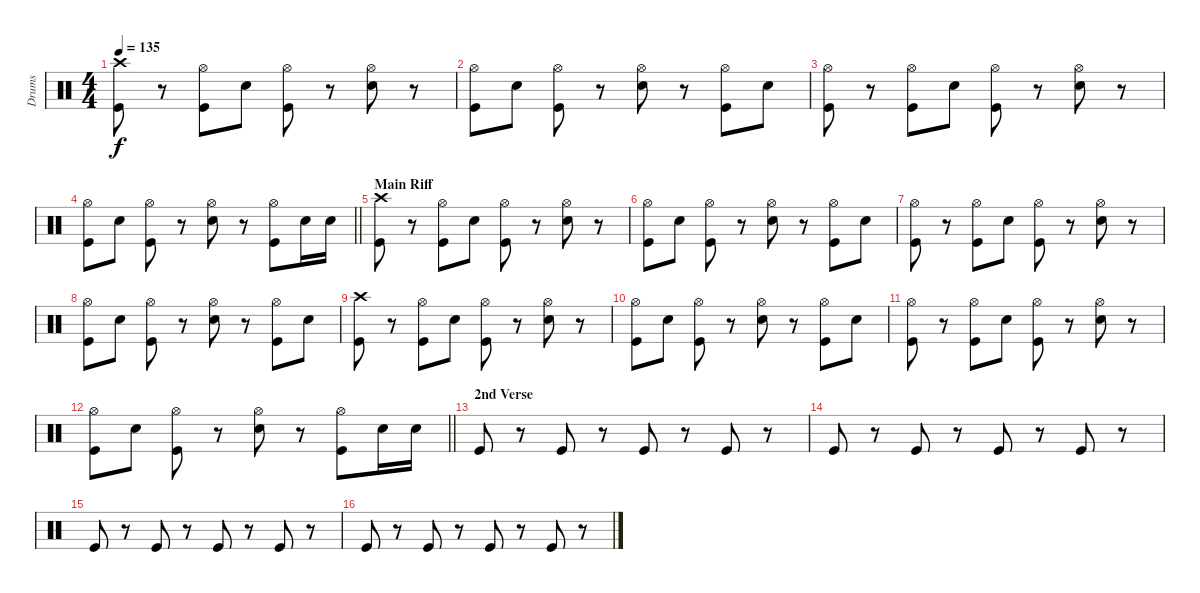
\track ("Drums" "Drums") {instrument percussion}
\staff {score}
\articulation defaults
\ts (4 4)
\tempo 135
\clef neutral
\ks c
("Crash high (hit)" "Kick (hit)").8{dy f} r.8 ("Hi-Hat (open)" "Kick (hit)").8 "Electric Snare (hit)".8 ("Hi-Hat (open)" "Kick (hit)").8 r.8 ("Hi-Hat (open)" "Electric Snare (hit)").8 r.8 |
("Hi-Hat (open)" "Kick (hit)").8 "Electric Snare (hit)".8 ("Hi-Hat (open)" "Kick (hit)").8 r.8 ("Hi-Hat (open)" "Electric Snare (hit)").8 r.8 ("Hi-Hat (open)" "Kick (hit)").8 "Electric Snare (hit)".8 |
("Hi-Hat (open)" "Kick (hit)").8 r.8 ("Hi-Hat (open)" "Kick (hit)").8 "Electric Snare (hit)".8 ("Hi-Hat (open)" "Kick (hit)").8 r.8 ("Hi-Hat (open)" "Electric Snare (hit)").8 r.8 |
\barLineRight lightlight
("Hi-Hat (open)" "Kick (hit)").8 "Electric Snare (hit)".8 ("Hi-Hat (open)" "Kick (hit)").8 r.8 ("Hi-Hat (open)" "Electric Snare (hit)").8 r.8 ("Hi-Hat (open)" "Kick (hit)").8 "Electric Snare (hit)".16 "Electric Snare (hit)".16 |
\section ("" "Main Riff")
("Crash high (hit)" "Kick (hit)").8 r.8 ("Hi-Hat (open)" "Kick (hit)").8 "Electric Snare (hit)".8 ("Hi-Hat (open)" "Kick (hit)").8 r.8 ("Hi-Hat (open)" "Electric Snare (hit)").8 r.8 |
("Hi-Hat (open)" "Kick (hit)").8 "Electric Snare (hit)".8 ("Hi-Hat (open)" "Kick (hit)").8 r.8 ("Hi-Hat (open)" "Electric Snare (hit)").8 r.8 ("Hi-Hat (open)" "Kick (hit)").8 "Electric Snare (hit)".8 |
("Hi-Hat (open)" "Kick (hit)").8 r.8 ("Hi-Hat (open)" "Kick (hit)").8 "Electric Snare (hit)".8 ("Hi-Hat (open)" "Kick (hit)").8 r.8 ("Hi-Hat (open)" "Electric Snare (hit)").8 r.8 |
("Hi-Hat (open)" "Kick (hit)").8 "Electric Snare (hit)".8 ("Hi-Hat (open)" "Kick (hit)").8 r.8 ("Hi-Hat (open)" "Electric Snare (hit)").8 r.8 ("Hi-Hat (open)" "Kick (hit)").8 "Electric Snare (hit)".8 |
("Crash high (hit)" "Kick (hit)").8 r.8 ("Hi-Hat (open)" "Kick (hit)").8 "Electric Snare (hit)".8 ("Hi-Hat (open)" "Kick (hit)").8 r.8 ("Hi-Hat (open)" "Electric Snare (hit)").8 r.8 |
("Hi-Hat (open)" "Kick (hit)").8 "Electric Snare (hit)".8 ("Hi-Hat (open)" "Kick (hit)").8 r.8 ("Hi-Hat (open)" "Electric Snare (hit)").8 r.8 ("Hi-Hat (open)" "Kick (hit)").8 "Electric Snare (hit)".8 |
("Hi-Hat (open)" "Kick (hit)").8 r.8 ("Hi-Hat (open)" "Kick (hit)").8 "Electric Snare (hit)".8 ("Hi-Hat (open)" "Kick (hit)").8 r.8 ("Hi-Hat (open)" "Electric Snare (hit)").8 r.8 |
\barLineRight lightlight
("Hi-Hat (open)" "Kick (hit)").8 "Electric Snare (hit)".8 ("Hi-Hat (open)" "Kick (hit)").8 r.8 ("Hi-Hat (open)" "Electric Snare (hit)").8 r.8 ("Hi-Hat (open)" "Kick (hit)").8 "Electric Snare (hit)".16 "Electric Snare (hit)".16 |
\section ("" "2nd Verse")
"Kick (hit)".8 r.8 "Kick (hit)".8 r.8 "Kick (hit)".8 r.8 "Kick (hit)".8 r.8 |
"Kick (hit)".8 r.8 "Kick (hit)".8 r.8 "Kick (hit)".8 r.8 "Kick (hit)".8 r.8 |
"Kick (hit)".8 r.8 "Kick (hit)".8 r.8 "Kick (hit)".8 r.8 "Kick (hit)".8 r.8 |
"Kick (hit)".8 r.8 "Kick (hit)".8 r.8 "Kick (hit)".8 r.8 "Kick (hit)".8 r.8
